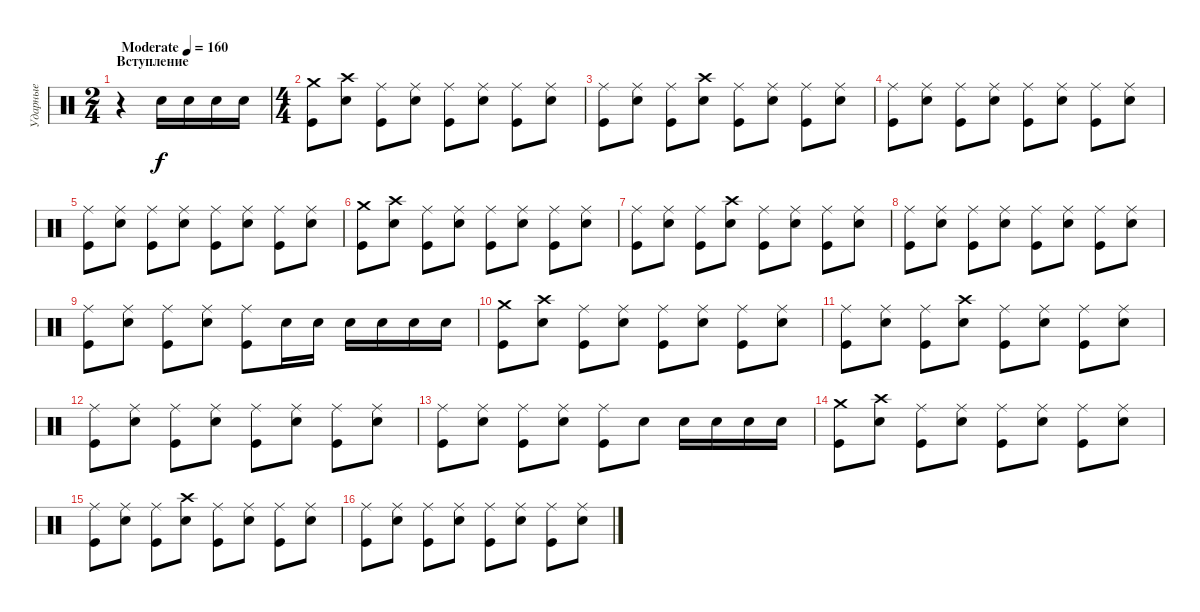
\track ("Ударные" "Ударные") {instrument percussion}
\staff {score}
\articulation defaults
\ts (2 4)
\section ("" "Вступление")
\tempo (160 "Moderate")
\clef neutral
\ks c
r.4{dy f} "Electric Snare (hit)".16 "Electric Snare (hit)".16 "Electric Snare (hit)".16 "Electric Snare (hit)".16 |
\ts (4 4)
("Crash medium (hit)" "Kick (hit)").8 ("Crash high (hit)" "Electric Snare (hit)").8 ("Ride (middle)" "Kick (hit)").8 ("Ride (middle)" "Electric Snare (hit)").8 ("Ride (middle)" "Kick (hit)").8 ("Ride (middle)" "Electric Snare (hit)").8 ("Ride (middle)" "Kick (hit)").8 ("Ride (middle)" "Electric Snare (hit)").8 |
("Ride (middle)" "Kick (hit)").8 ("Ride (middle)" "Electric Snare (hit)").8 ("Ride (middle)" "Kick (hit)").8 ("Crash high (hit)" "Electric Snare (hit)").8 ("Ride (middle)" "Kick (hit)").8 ("Ride (middle)" "Electric Snare (hit)").8 ("Ride (middle)" "Kick (hit)").8 ("Ride (middle)" "Electric Snare (hit)").8 |
("Ride (middle)" "Kick (hit)").8 ("Ride (middle)" "Electric Snare (hit)").8 ("Ride (middle)" "Kick (hit)").8 ("Ride (middle)" "Electric Snare (hit)").8 ("Ride (middle)" "Kick (hit)").8 ("Ride (middle)" "Electric Snare (hit)").8 ("Ride (middle)" "Kick (hit)").8 ("Ride (middle)" "Electric Snare (hit)").8 |
("Ride (middle)" "Kick (hit)").8 ("Ride (middle)" "Electric Snare (hit)").8 ("Ride (middle)" "Kick (hit)").8 ("Ride (middle)" "Electric Snare (hit)").8 ("Ride (middle)" "Kick (hit)").8 ("Ride (middle)" "Electric Snare (hit)").8 ("Ride (middle)" "Kick (hit)").8 ("Ride (middle)" "Electric Snare (hit)").8 |
("Crash medium (hit)" "Kick (hit)").8 ("Crash high (hit)" "Electric Snare (hit)").8 ("Ride (middle)" "Kick (hit)").8 ("Ride (middle)" "Electric Snare (hit)").8 ("Ride (middle)" "Kick (hit)").8 ("Ride (middle)" "Electric Snare (hit)").8 ("Ride (middle)" "Kick (hit)").8 ("Ride (middle)" "Electric Snare (hit)").8 |
("Ride (middle)" "Kick (hit)").8 ("Ride (middle)" "Electric Snare (hit)").8 ("Ride (middle)" "Kick (hit)").8 ("Crash high (hit)" "Electric Snare (hit)").8 ("Ride (middle)" "Kick (hit)").8 ("Ride (middle)" "Electric Snare (hit)").8 ("Ride (middle)" "Kick (hit)").8 ("Ride (middle)" "Electric Snare (hit)").8 |
("Ride (middle)" "Kick (hit)").8 ("Ride (middle)" "Electric Snare (hit)").8 ("Ride (middle)" "Kick (hit)").8 ("Ride (middle)" "Electric Snare (hit)").8 ("Ride (middle)" "Kick (hit)").8 ("Ride (middle)" "Electric Snare (hit)").8 ("Ride (middle)" "Kick (hit)").8 ("Ride (middle)" "Electric Snare (hit)").8 |
("Ride (middle)" "Kick (hit)").8 ("Ride (middle)" "Electric Snare (hit)").8 ("Ride (middle)" "Kick (hit)").8 ("Ride (middle)" "Electric Snare (hit)").8 ("Ride (middle)" "Kick (hit)").8 "Electric Snare (hit)".16 "Electric Snare (hit)".16 "Electric Snare (hit)".16 "Electric Snare (hit)".16 "Electric Snare (hit)".16 "Electric Snare (hit)".16 |
("Crash medium (hit)" "Kick (hit)").8 ("Crash high (hit)" "Electric Snare (hit)").8 ("Ride (middle)" "Kick (hit)").8 ("Ride (middle)" "Electric Snare (hit)").8 ("Ride (middle)" "Kick (hit)").8 ("Ride (middle)" "Electric Snare (hit)").8 ("Ride (middle)" "Kick (hit)").8 ("Ride (middle)" "Electric Snare (hit)").8 |
("Ride (middle)" "Kick (hit)").8 ("Ride (middle)" "Electric Snare (hit)").8 ("Ride (middle)" "Kick (hit)").8 ("Crash high (hit)" "Electric Snare (hit)").8 ("Ride (middle)" "Kick (hit)").8 ("Ride (middle)" "Electric Snare (hit)").8 ("Ride (middle)" "Kick (hit)").8 ("Ride (middle)" "Electric Snare (hit)").8 |
("Ride (middle)" "Kick (hit)").8 ("Ride (middle)" "Electric Snare (hit)").8 ("Ride (middle)" "Kick (hit)").8 ("Ride (middle)" "Electric Snare (hit)").8 ("Ride (middle)" "Kick (hit)").8 ("Ride (middle)" "Electric Snare (hit)").8 ("Ride (middle)" "Kick (hit)").8 ("Ride (middle)" "Electric Snare (hit)").8 |
("Ride (middle)" "Kick (hit)").8 ("Ride (middle)" "Electric Snare (hit)").8 ("Ride (middle)" "Kick (hit)").8 ("Ride (middle)" "Electric Snare (hit)").8 ("Ride (middle)" "Kick (hit)").8 "Electric Snare (hit)".8 "Electric Snare (hit)".16 "Electric Snare (hit)".16 "Electric Snare (hit)".16 "Electric Snare (hit)".16 |
("Crash medium (hit)" "Kick (hit)").8 ("Crash high (hit)" "Electric Snare (hit)").8 ("Ride (middle)" "Kick (hit)").8 ("Ride (middle)" "Electric Snare (hit)").8 ("Ride (middle)" "Kick (hit)").8 ("Ride (middle)" "Electric Snare (hit)").8 ("Ride (middle)" "Kick (hit)").8 ("Ride (middle)" "Electric Snare (hit)").8 |
("Ride (middle)" "Kick (hit)").8 ("Ride (middle)" "Electric Snare (hit)").8 ("Ride (middle)" "Kick (hit)").8 ("Crash high (hit)" "Electric Snare (hit)").8 ("Ride (middle)" "Kick (hit)").8 ("Ride (middle)" "Electric Snare (hit)").8 ("Ride (middle)" "Kick (hit)").8 ("Ride (middle)" "Electric Snare (hit)").8 |
("Ride (middle)" "Kick (hit)").8 ("Ride (middle)" "Electric Snare (hit)").8 ("Ride (middle)" "Kick (hit)").8 ("Ride (middle)" "Electric Snare (hit)").8 ("Ride (middle)" "Kick (hit)").8 ("Ride (middle)" "Electric Snare (hit)").8 ("Ride (middle)" "Kick (hit)").8 ("Ride (middle)" "Electric Snare (hit)").8
